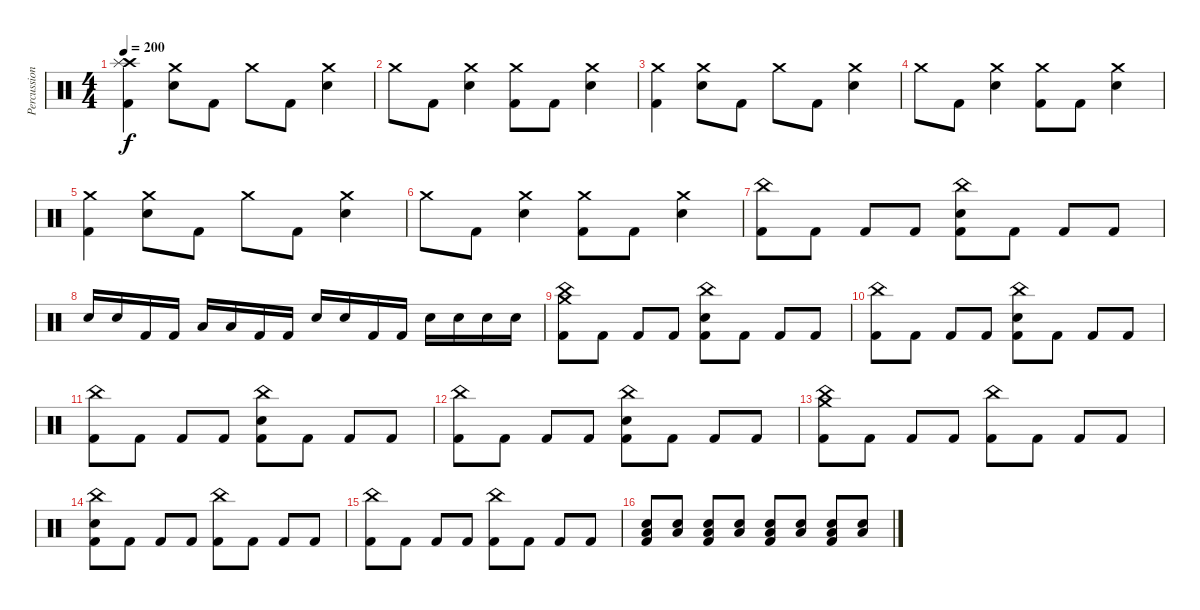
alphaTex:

\track ("Percussion" "Percussion") {instrument percussion}
\staff {score}
\articulation defaults
\ts (4 4)
\tempo 200
\clef neutral
\ks c
("Crash high (hit)" "Splash (hit)" "Kick (hit) 2").4{dy f} ("Crash medium (hit)" "Electric Snare (hit)").8 "Kick (hit) 2".8 "Crash medium (hit)".8 "Kick (hit) 2".8 ("Crash medium (hit)" "Electric Snare (hit)").4 |
"Crash medium (hit)".8 "Kick (hit) 2".8 ("Crash medium (hit)" "Electric Snare (hit)").4 ("Crash medium (hit)" "Kick (hit) 2").8 "Kick (hit) 2".8 ("Crash medium (hit)" "Electric Snare (hit)").4 |
("Crash medium (hit)" "Kick (hit) 2").4 ("Crash medium (hit)" "Electric Snare (hit)").8 "Kick (hit) 2".8 "Crash medium (hit)".8 "Kick (hit) 2".8 ("Crash medium (hit)" "Electric Snare (hit)").4 |
"Crash medium (hit)".8 "Kick (hit) 2".8 ("Crash medium (hit)" "Electric Snare (hit)").4 ("Crash medium (hit)" "Kick (hit) 2").8 "Kick (hit) 2".8 ("Crash medium (hit)" "Electric Snare (hit)").4 |
("Crash medium (hit)" "Kick (hit) 2").4 ("Crash medium (hit)" "Electric Snare (hit)").8 "Kick (hit) 2".8 "Crash medium (hit)".8 "Kick (hit) 2".8 ("Crash medium (hit)" "Electric Snare (hit)").4 |
"Crash medium (hit)".8 "Kick (hit) 2".8 ("Crash medium (hit)" "Electric Snare (hit)").4 ("Crash medium (hit)" "Kick (hit) 2").8 "Kick (hit) 2".8 ("Crash medium (hit)" "Electric Snare (hit)").4 |
("China (hit)" "Kick (hit) 2").8 "Kick (hit) 2".8 "Kick (hit) 2".8 "Kick (hit) 2".8 ("China (hit)" "Electric Snare (hit)" "Kick (hit) 2").8 "Kick (hit) 2".8 "Kick (hit) 2".8 "Kick (hit) 2".8 |
"Electric Snare (hit)".16 "Electric Snare (hit)".16 "Kick (hit) 2".16 "Kick (hit) 2".16 "Low Tom (hit)".16 "Low Tom (hit)".16 "Kick (hit) 2".16 "Kick (hit) 2".16 "Electric Snare (hit)".16 "Electric Snare (hit)".16 "Kick (hit) 2".16 "Kick (hit) 2".16 "Electric Snare (hit)".16 "Electric Snare (hit)".16 "Electric Snare (hit)".16 "Electric Snare (hit)".16 |
("China (hit)" "Crash medium (hit)" "Kick (hit) 2").8 "Kick (hit) 2".8 "Kick (hit) 2".8 "Kick (hit) 2".8 ("China (hit)" "Electric Snare (hit)" "Kick (hit) 2").8 "Kick (hit) 2".8 "Kick (hit) 2".8 "Kick (hit) 2".8 |
("China (hit)" "Kick (hit) 2").8 "Kick (hit) 2".8 "Kick (hit) 2".8 "Kick (hit) 2".8 ("China (hit)" "Electric Snare (hit)" "Kick (hit) 2").8 "Kick (hit) 2".8 "Kick (hit) 2".8 "Kick (hit) 2".8 |
("China (hit)" "Kick (hit) 2").8 "Kick (hit) 2".8 "Kick (hit) 2".8 "Kick (hit) 2".8 ("China (hit)" "Electric Snare (hit)" "Kick (hit) 2").8 "Kick (hit) 2".8 "Kick (hit) 2".8 "Kick (hit) 2".8 |
("China (hit)" "Kick (hit) 2").8 "Kick (hit) 2".8 "Kick (hit) 2".8 "Kick (hit) 2".8 ("China (hit)" "Electric Snare (hit)" "Kick (hit) 2").8 "Kick (hit) 2".8 "Kick (hit) 2".8 "Kick (hit) 2".8 |
("China (hit)" "Crash medium (hit)" "Kick (hit) 2").8 "Kick (hit) 2".8 "Kick (hit) 2".8 "Kick (hit) 2".8 ("China (hit)" "Kick (hit) 2").8 "Kick (hit) 2".8 "Kick (hit) 2".8 "Kick (hit) 2".8 |
("China (hit)" "Electric Snare (hit)" "Kick (hit) 2").8 "Kick (hit) 2".8 "Kick (hit) 2".8 "Kick (hit) 2".8 ("China (hit)" "Kick (hit) 2").8 "Kick (hit) 2".8 "Kick (hit) 2".8 "Kick (hit) 2".8 |
("China (hit)" "Kick (hit) 2").8 "Kick (hit) 2".8 "Kick (hit) 2".8 "Kick (hit) 2".8 ("China (hit)" "Kick (hit) 2").8 "Kick (hit) 2".8 "Kick (hit) 2".8 "Kick (hit) 2".8 |
("Electric Snare (hit)" "Low Floor Tom (hit)" "Kick (hit) 2").8 ("Electric Snare (hit)" "Low Floor Tom (hit)").8 ("Electric Snare (hit)" "Low Floor Tom (hit)" "Kick (hit) 2").8 ("Electric Snare (hit)" "Low Floor Tom (hit)").8 ("Electric Snare (hit)" "Low Floor Tom (hit)" "Kick (hit) 2").8 ("Electric Snare (hit)" "Low Floor Tom (hit)").8 ("Electric Snare (hit)" "Low Floor Tom (hit)" "Kick (hit) 2").8 ("Electric Snare (hit)" "Low Floor Tom (hit)").8
